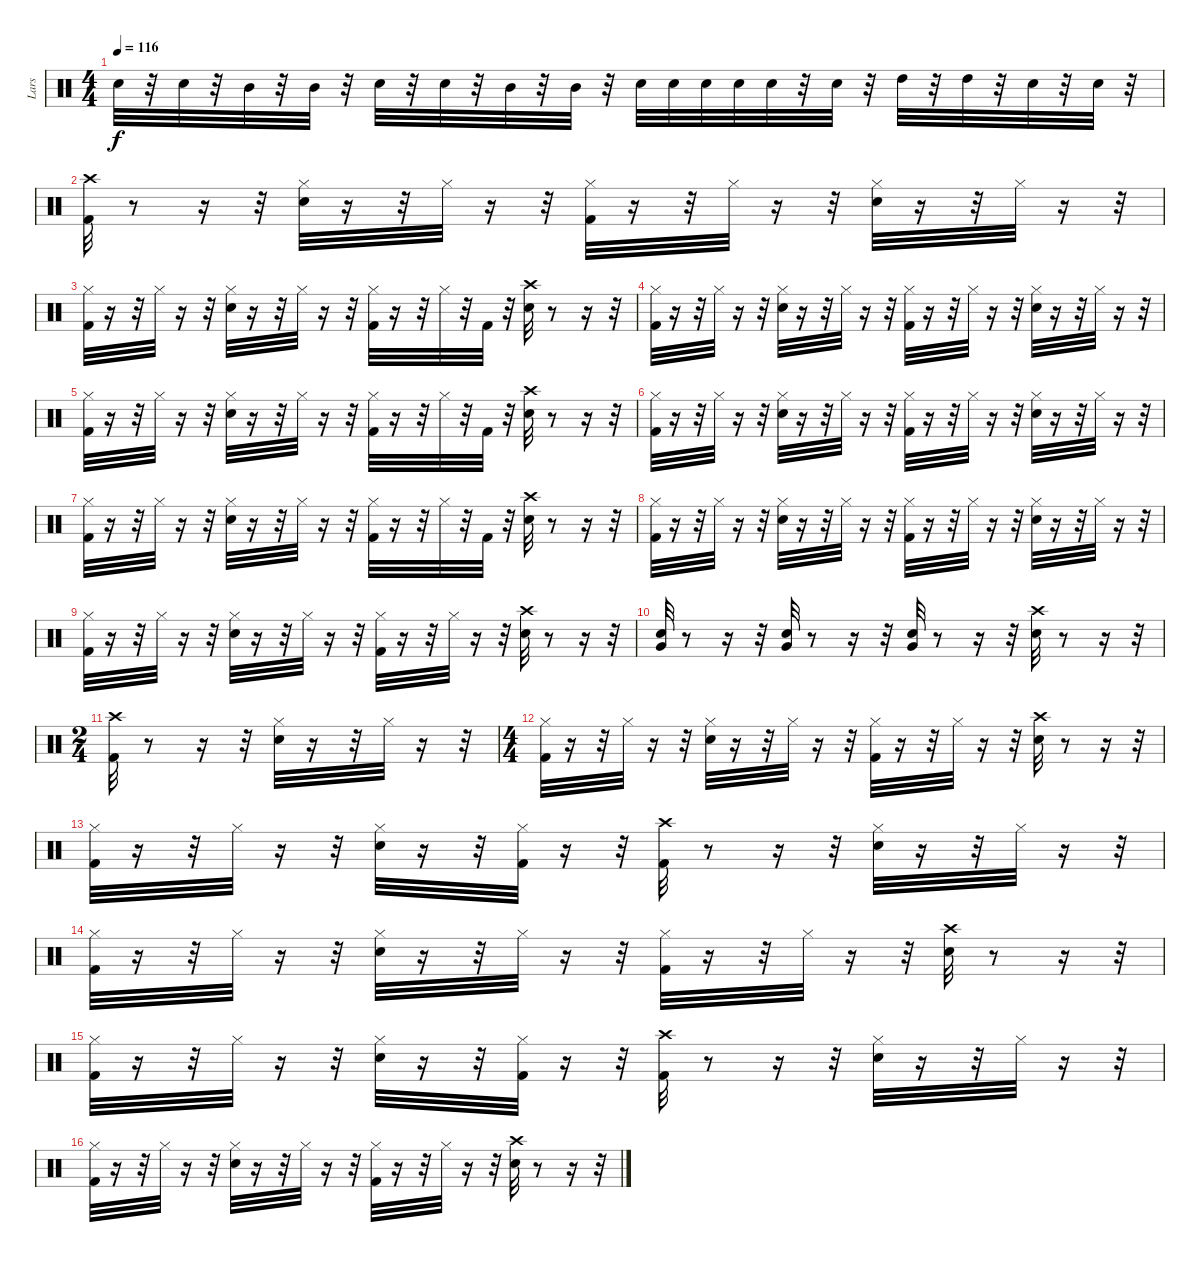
\track ("Lars" "Lars") {instrument percussion}
\staff {score}
\articulation defaults
\ts (4 4)
\tempo 116
\clef neutral
\ks c "Snare (hit) 2".32{dy f}
r.32 "Snare (hit) 2".32 r.32 "Mid Tom (hit)".32 r.32 "Mid Tom (hit)".32 r.32 "Snare (hit) 2".32 r.32 "Snare (hit) 2".32 r.32 "Mid Tom (hit)".32 r.32 "Mid Tom (hit)".32 r.32 "Snare (hit) 2".32 "Snare (hit) 2".32 "Snare (hit) 2".32 "Snare (hit) 2".32 "Snare (hit) 2".32 r.32 "Snare (hit) 2".32 r.32 "High Tom (hit)".32 r.32 "High Tom (hit)".32 r.32 "Snare (hit) 2".32 r.32 "Snare (hit) 2".32 r.32 |
("Kick (hit) 2" "Crash high (hit)").32 r.8 r.16 r.32 ("Hi-Hat (closed)" "Snare (hit) 2").32 r.16 r.32 "Hi-Hat (closed)".32 r.16 r.32 ("Hi-Hat (closed)" "Kick (hit) 2").32 r.16 r.32 "Hi-Hat (closed)".32 r.16 r.32 ("Snare (hit) 2" "Hi-Hat (closed)").32 r.16 r.32 "Hi-Hat (closed)".32 r.16 r.32 |
("Kick (hit) 2" "Hi-Hat (closed)").32 r.16 r.32 "Hi-Hat (closed)".32 r.16 r.32 ("Snare (hit) 2" "Hi-Hat (closed)").32 r.16 r.32 "Hi-Hat (closed)".32 r.16 r.32 ("Hi-Hat (closed)" "Kick (hit) 2").32 r.16 r.32 "Hi-Hat (closed)".32 r.32 "Kick (hit) 2".32 r.32 ("Crash high (hit)" "Snare (hit) 2").32 r.8 r.16 r.32 |
("Kick (hit) 2" "Hi-Hat (closed)").32 r.16 r.32 "Hi-Hat (closed)".32 r.16 r.32 ("Snare (hit) 2" "Hi-Hat (closed)").32 r.16 r.32 "Hi-Hat (closed)".32 r.16 r.32 ("Kick (hit) 2" "Hi-Hat (closed)").32 r.16 r.32 "Hi-Hat (closed)".32 r.16 r.32 ("Snare (hit) 2" "Hi-Hat (closed)").32 r.16 r.32 "Hi-Hat (closed)".32 r.16 r.32 |
("Hi-Hat (closed)" "Kick (hit) 2").32 r.16 r.32 "Hi-Hat (closed)".32 r.16 r.32 ("Snare (hit) 2" "Hi-Hat (closed)").32 r.16 r.32 "Hi-Hat (closed)".32 r.16 r.32 ("Hi-Hat (closed)" "Kick (hit) 2").32 r.16 r.32 "Hi-Hat (closed)".32 r.32 "Kick (hit) 2".32 r.32 ("Crash high (hit)" "Snare (hit) 2").32 r.8 r.16 r.32 |
("Kick (hit) 2" "Hi-Hat (closed)").32 r.16 r.32 "Hi-Hat (closed)".32 r.16 r.32 ("Snare (hit) 2" "Hi-Hat (closed)").32 r.16 r.32 "Hi-Hat (closed)".32 r.16 r.32 ("Kick (hit) 2" "Hi-Hat (closed)").32 r.16 r.32 "Hi-Hat (closed)".32 r.16 r.32 ("Snare (hit) 2" "Hi-Hat (closed)").32 r.16 r.32 "Hi-Hat (closed)".32 r.16 r.32 |
("Kick (hit) 2" "Hi-Hat (closed)").32 r.16 r.32 "Hi-Hat (closed)".32 r.16 r.32 ("Snare (hit) 2" "Hi-Hat (closed)").32 r.16 r.32 "Hi-Hat (closed)".32 r.16 r.32 ("Hi-Hat (closed)" "Kick (hit) 2").32 r.16 r.32 "Hi-Hat (closed)".32 r.32 "Kick (hit) 2".32 r.32 ("Crash high (hit)" "Snare (hit) 2").32 r.8 r.16 r.32 |
("Kick (hit) 2" "Hi-Hat (closed)").32 r.16 r.32 "Hi-Hat (closed)".32 r.16 r.32 ("Snare (hit) 2" "Hi-Hat (closed)").32 r.16 r.32 "Hi-Hat (closed)".32 r.16 r.32 ("Kick (hit) 2" "Hi-Hat (closed)").32 r.16 r.32 "Hi-Hat (closed)".32 r.16 r.32 ("Snare (hit) 2" "Hi-Hat (closed)").32 r.16 r.32 "Hi-Hat (closed)".32 r.16 r.32 |
("Kick (hit) 2" "Hi-Hat (closed)").32 r.16 r.32 "Hi-Hat (closed)".32 r.16 r.32 ("Snare (hit) 2" "Hi-Hat (closed)").32 r.16 r.32 "Hi-Hat (closed)".32 r.16 r.32 ("Hi-Hat (closed)" "Kick (hit) 2").32 r.16 r.32 "Hi-Hat (closed)".32 r.16 r.32 ("Crash high (hit)" "Snare (hit) 2").32 r.8 r.16 r.32 |
("Very Low Tom (hit)" "Snare (hit) 2").32 r.8 r.16 r.32 ("Very Low Tom (hit)" "Snare (hit) 2").32 r.8 r.16 r.32 ("Very Low Tom (hit)" "Snare (hit) 2").32 r.8 r.16 r.32 ("Crash high (hit)" "Snare (hit) 2").32 r.8 r.16 r.32 |
\ts (2 4)
("Kick (hit) 2" "Crash high (hit)").32 r.8 r.16 r.32 ("Hi-Hat (closed)" "Snare (hit) 2").32 r.16 r.32 "Hi-Hat (closed)".32 r.16 r.32 |
\ts (4 4)
("Kick (hit) 2" "Hi-Hat (closed)").32 r.16 r.32 "Hi-Hat (closed)".32 r.16 r.32 ("Snare (hit) 2" "Hi-Hat (closed)").32 r.16 r.32 "Hi-Hat (closed)".32 r.16 r.32 ("Hi-Hat (closed)" "Kick (hit) 2").32 r.16 r.32 "Hi-Hat (closed)".32 r.16 r.32 ("Crash high (hit)" "Snare (hit) 2").32 r.8 r.16 r.32 |
("Kick (hit) 2" "Hi-Hat (closed)").32 r.16 r.32 "Hi-Hat (closed)".32 r.16 r.32 ("Snare (hit) 2" "Hi-Hat (closed)").32 r.16 r.32 ("Kick (hit) 2" "Hi-Hat (closed)").32 r.16 r.32 ("Crash high (hit)" "Kick (hit) 2").32 r.8 r.16 r.32 ("Hi-Hat (closed)" "Snare (hit) 2").32 r.16 r.32 "Hi-Hat (closed)".32 r.16 r.32 |
("Kick (hit) 2" "Hi-Hat (closed)").32 r.16 r.32 "Hi-Hat (closed)".32 r.16 r.32 ("Snare (hit) 2" "Hi-Hat (closed)").32 r.16 r.32 "Hi-Hat (closed)".32 r.16 r.32 ("Hi-Hat (closed)" "Kick (hit) 2").32 r.16 r.32 "Hi-Hat (closed)".32 r.16 r.32 ("Crash high (hit)" "Snare (hit) 2").32 r.8 r.16 r.32 |
("Kick (hit) 2" "Hi-Hat (closed)").32 r.16 r.32 "Hi-Hat (closed)".32 r.16 r.32 ("Snare (hit) 2" "Hi-Hat (closed)").32 r.16 r.32 ("Kick (hit) 2" "Hi-Hat (closed)").32 r.16 r.32 ("Crash high (hit)" "Kick (hit) 2").32 r.8 r.16 r.32 ("Hi-Hat (closed)" "Snare (hit) 2").32 r.16 r.32 "Hi-Hat (closed)".32 r.16 r.32 |
("Kick (hit) 2" "Hi-Hat (closed)").32 r.16 r.32 "Hi-Hat (closed)".32 r.16 r.32 ("Snare (hit) 2" "Hi-Hat (closed)").32 r.16 r.32 "Hi-Hat (closed)".32 r.16 r.32 ("Hi-Hat (closed)" "Kick (hit) 2").32 r.16 r.32 "Hi-Hat (closed)".32 r.16 r.32 ("Crash high (hit)" "Snare (hit) 2").32 r.8 r.16 r.32
